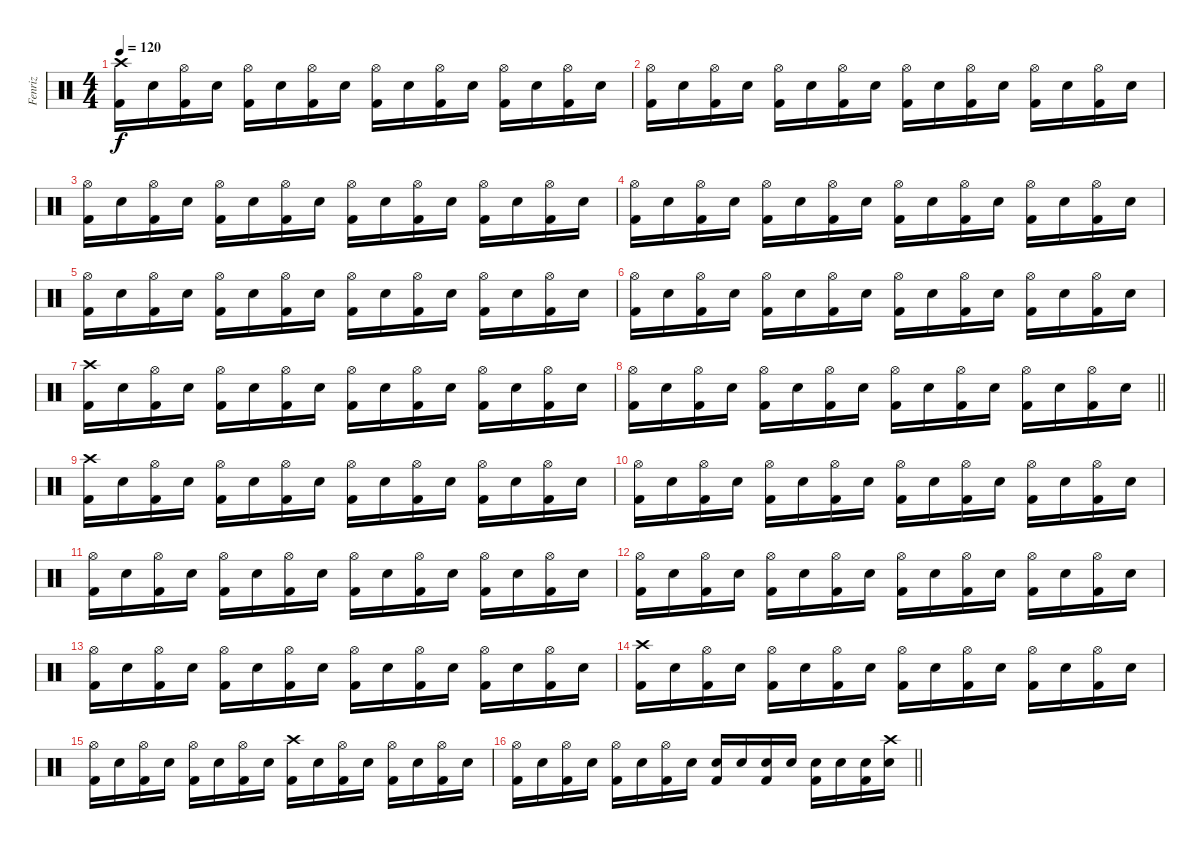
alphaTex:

\track ("Fenriz" "Fenriz") {instrument percussion}
\staff {score}
\articulation defaults
\ts (4 4)
\tempo 120
\clef neutral
\ks c
("Kick (hit) 2" "Crash high (hit)").16{dy f} "Electric Snare (hit)".16 ("Kick (hit) 2" "Hi-Hat (open)").16 "Electric Snare (hit)".16 ("Kick (hit) 2" "Hi-Hat (open)").16 "Electric Snare (hit)".16 ("Kick (hit) 2" "Hi-Hat (open)").16 "Electric Snare (hit)".16 ("Kick (hit) 2" "Hi-Hat (open)").16 "Electric Snare (hit)".16 ("Kick (hit) 2" "Hi-Hat (open)").16 "Electric Snare (hit)".16 ("Kick (hit) 2" "Hi-Hat (open)").16 "Electric Snare (hit)".16 ("Kick (hit) 2" "Hi-Hat (open)").16 "Electric Snare (hit)".16 |
("Kick (hit) 2" "Hi-Hat (open)").16 "Electric Snare (hit)".16 ("Kick (hit) 2" "Hi-Hat (open)").16 "Electric Snare (hit)".16 ("Kick (hit) 2" "Hi-Hat (open)").16 "Electric Snare (hit)".16 ("Kick (hit) 2" "Hi-Hat (open)").16 "Electric Snare (hit)".16 ("Kick (hit) 2" "Hi-Hat (open)").16 "Electric Snare (hit)".16 ("Kick (hit) 2" "Hi-Hat (open)").16 "Electric Snare (hit)".16 ("Kick (hit) 2" "Hi-Hat (open)").16 "Electric Snare (hit)".16 ("Kick (hit) 2" "Hi-Hat (open)").16 "Electric Snare (hit)".16 |
("Kick (hit) 2" "Hi-Hat (open)").16 "Electric Snare (hit)".16 ("Kick (hit) 2" "Hi-Hat (open)").16 "Electric Snare (hit)".16 ("Kick (hit) 2" "Hi-Hat (open)").16 "Electric Snare (hit)".16 ("Kick (hit) 2" "Hi-Hat (open)").16 "Electric Snare (hit)".16 ("Kick (hit) 2" "Hi-Hat (open)").16 "Electric Snare (hit)".16 ("Kick (hit) 2" "Hi-Hat (open)").16 "Electric Snare (hit)".16 ("Kick (hit) 2" "Hi-Hat (open)").16 "Electric Snare (hit)".16 ("Kick (hit) 2" "Hi-Hat (open)").16 "Electric Snare (hit)".16 |
("Kick (hit) 2" "Hi-Hat (open)").16 "Electric Snare (hit)".16 ("Kick (hit) 2" "Hi-Hat (open)").16 "Electric Snare (hit)".16 ("Kick (hit) 2" "Hi-Hat (open)").16 "Electric Snare (hit)".16 ("Kick (hit) 2" "Hi-Hat (open)").16 "Electric Snare (hit)".16 ("Kick (hit) 2" "Hi-Hat (open)").16 "Electric Snare (hit)".16 ("Kick (hit) 2" "Hi-Hat (open)").16 "Electric Snare (hit)".16 ("Kick (hit) 2" "Hi-Hat (open)").16 "Electric Snare (hit)".16 ("Kick (hit) 2" "Hi-Hat (open)").16 "Electric Snare (hit)".16 |
("Kick (hit) 2" "Hi-Hat (open)").16 "Electric Snare (hit)".16 ("Kick (hit) 2" "Hi-Hat (open)").16 "Electric Snare (hit)".16 ("Kick (hit) 2" "Hi-Hat (open)").16 "Electric Snare (hit)".16 ("Kick (hit) 2" "Hi-Hat (open)").16 "Electric Snare (hit)".16 ("Kick (hit) 2" "Hi-Hat (open)").16 "Electric Snare (hit)".16 ("Kick (hit) 2" "Hi-Hat (open)").16 "Electric Snare (hit)".16 ("Kick (hit) 2" "Hi-Hat (open)").16 "Electric Snare (hit)".16 ("Kick (hit) 2" "Hi-Hat (open)").16 "Electric Snare (hit)".16 |
("Kick (hit) 2" "Hi-Hat (open)").16 "Electric Snare (hit)".16 ("Kick (hit) 2" "Hi-Hat (open)").16 "Electric Snare (hit)".16 ("Kick (hit) 2" "Hi-Hat (open)").16 "Electric Snare (hit)".16 ("Kick (hit) 2" "Hi-Hat (open)").16 "Electric Snare (hit)".16 ("Kick (hit) 2" "Hi-Hat (open)").16 "Electric Snare (hit)".16 ("Kick (hit) 2" "Hi-Hat (open)").16 "Electric Snare (hit)".16 ("Kick (hit) 2" "Hi-Hat (open)").16 "Electric Snare (hit)".16 ("Kick (hit) 2" "Hi-Hat (open)").16 "Electric Snare (hit)".16 |
("Kick (hit) 2" "Crash high (hit)").16 "Electric Snare (hit)".16 ("Kick (hit) 2" "Hi-Hat (open)").16 "Electric Snare (hit)".16 ("Kick (hit) 2" "Hi-Hat (open)").16 "Electric Snare (hit)".16 ("Kick (hit) 2" "Hi-Hat (open)").16 "Electric Snare (hit)".16 ("Kick (hit) 2" "Hi-Hat (open)").16 "Electric Snare (hit)".16 ("Kick (hit) 2" "Hi-Hat (open)").16 "Electric Snare (hit)".16 ("Kick (hit) 2" "Hi-Hat (open)").16 "Electric Snare (hit)".16 ("Kick (hit) 2" "Hi-Hat (open)").16 "Electric Snare (hit)".16 |
\barLineRight lightlight
("Kick (hit) 2" "Hi-Hat (open)").16 "Electric Snare (hit)".16 ("Kick (hit) 2" "Hi-Hat (open)").16 "Electric Snare (hit)".16 ("Kick (hit) 2" "Hi-Hat (open)").16 "Electric Snare (hit)".16 ("Kick (hit) 2" "Hi-Hat (open)").16 "Electric Snare (hit)".16 ("Kick (hit) 2" "Hi-Hat (open)").16 "Electric Snare (hit)".16 ("Kick (hit) 2" "Hi-Hat (open)").16 "Electric Snare (hit)".16 ("Kick (hit) 2" "Hi-Hat (open)").16 "Electric Snare (hit)".16 ("Kick (hit) 2" "Hi-Hat (open)").16 "Electric Snare (hit)".16 |
("Kick (hit) 2" "Crash high (hit)").16 "Electric Snare (hit)".16 ("Kick (hit) 2" "Hi-Hat (open)").16 "Electric Snare (hit)".16 ("Kick (hit) 2" "Hi-Hat (open)").16 "Electric Snare (hit)".16 ("Kick (hit) 2" "Hi-Hat (open)").16 "Electric Snare (hit)".16 ("Kick (hit) 2" "Hi-Hat (open)").16 "Electric Snare (hit)".16 ("Kick (hit) 2" "Hi-Hat (open)").16 "Electric Snare (hit)".16 ("Kick (hit) 2" "Hi-Hat (open)").16 "Electric Snare (hit)".16 ("Kick (hit) 2" "Hi-Hat (open)").16 "Electric Snare (hit)".16 |
("Kick (hit) 2" "Hi-Hat (open)").16 "Electric Snare (hit)".16 ("Kick (hit) 2" "Hi-Hat (open)").16 "Electric Snare (hit)".16 ("Kick (hit) 2" "Hi-Hat (open)").16 "Electric Snare (hit)".16 ("Kick (hit) 2" "Hi-Hat (open)").16 "Electric Snare (hit)".16 ("Kick (hit) 2" "Hi-Hat (open)").16 "Electric Snare (hit)".16 ("Kick (hit) 2" "Hi-Hat (open)").16 "Electric Snare (hit)".16 ("Kick (hit) 2" "Hi-Hat (open)").16 "Electric Snare (hit)".16 ("Kick (hit) 2" "Hi-Hat (open)").16 "Electric Snare (hit)".16 |
("Kick (hit) 2" "Hi-Hat (open)").16 "Electric Snare (hit)".16 ("Kick (hit) 2" "Hi-Hat (open)").16 "Electric Snare (hit)".16 ("Kick (hit) 2" "Hi-Hat (open)").16 "Electric Snare (hit)".16 ("Kick (hit) 2" "Hi-Hat (open)").16 "Electric Snare (hit)".16 ("Kick (hit) 2" "Hi-Hat (open)").16 "Electric Snare (hit)".16 ("Kick (hit) 2" "Hi-Hat (open)").16 "Electric Snare (hit)".16 ("Kick (hit) 2" "Hi-Hat (open)").16 "Electric Snare (hit)".16 ("Kick (hit) 2" "Hi-Hat (open)").16 "Electric Snare (hit)".16 |
("Kick (hit) 2" "Hi-Hat (open)").16 "Electric Snare (hit)".16 ("Kick (hit) 2" "Hi-Hat (open)").16 "Electric Snare (hit)".16 ("Kick (hit) 2" "Hi-Hat (open)").16 "Electric Snare (hit)".16 ("Kick (hit) 2" "Hi-Hat (open)").16 "Electric Snare (hit)".16 ("Kick (hit) 2" "Hi-Hat (open)").16 "Electric Snare (hit)".16 ("Kick (hit) 2" "Hi-Hat (open)").16 "Electric Snare (hit)".16 ("Kick (hit) 2" "Hi-Hat (open)").16 "Electric Snare (hit)".16 ("Kick (hit) 2" "Hi-Hat (open)").16 "Electric Snare (hit)".16 |
("Kick (hit) 2" "Hi-Hat (open)").16 "Electric Snare (hit)".16 ("Kick (hit) 2" "Hi-Hat (open)").16 "Electric Snare (hit)".16 ("Kick (hit) 2" "Hi-Hat (open)").16 "Electric Snare (hit)".16 ("Kick (hit) 2" "Hi-Hat (open)").16 "Electric Snare (hit)".16 ("Kick (hit) 2" "Hi-Hat (open)").16 "Electric Snare (hit)".16 ("Kick (hit) 2" "Hi-Hat (open)").16 "Electric Snare (hit)".16 ("Kick (hit) 2" "Hi-Hat (open)").16 "Electric Snare (hit)".16 ("Kick (hit) 2" "Hi-Hat (open)").16 "Electric Snare (hit)".16 |
("Kick (hit) 2" "Crash high (hit)").16 "Electric Snare (hit)".16 ("Kick (hit) 2" "Hi-Hat (open)").16 "Electric Snare (hit)".16 ("Kick (hit) 2" "Hi-Hat (open)").16 "Electric Snare (hit)".16 ("Kick (hit) 2" "Hi-Hat (open)").16 "Electric Snare (hit)".16 ("Kick (hit) 2" "Hi-Hat (open)").16 "Electric Snare (hit)".16 ("Kick (hit) 2" "Hi-Hat (open)").16 "Electric Snare (hit)".16 ("Kick (hit) 2" "Hi-Hat (open)").16 "Electric Snare (hit)".16 ("Kick (hit) 2" "Hi-Hat (open)").16 "Electric Snare (hit)".16 |
("Kick (hit) 2" "Hi-Hat (open)").16 "Electric Snare (hit)".16 ("Kick (hit) 2" "Hi-Hat (open)").16 "Electric Snare (hit)".16 ("Kick (hit) 2" "Hi-Hat (open)").16 "Electric Snare (hit)".16 ("Kick (hit) 2" "Hi-Hat (open)").16 "Electric Snare (hit)".16 ("Kick (hit) 2" "Crash high (hit)").16 "Electric Snare (hit)".16 ("Kick (hit) 2" "Hi-Hat (open)").16 "Electric Snare (hit)".16 ("Kick (hit) 2" "Hi-Hat (open)").16 "Electric Snare (hit)".16 ("Kick (hit) 2" "Hi-Hat (open)").16 "Electric Snare (hit)".16 |
\barLineRight lightlight
("Kick (hit) 2" "Hi-Hat (open)").16 "Electric Snare (hit)".16 ("Kick (hit) 2" "Hi-Hat (open)").16 "Electric Snare (hit)".16 ("Kick (hit) 2" "Hi-Hat (open)").16 "Electric Snare (hit)".16 ("Kick (hit) 2" "Hi-Hat (open)").16 "Electric Snare (hit)".16 ("Kick (hit) 2" "Electric Snare (hit)").16 "Electric Snare (hit)".16 ("Kick (hit) 2" "Electric Snare (hit)").16 "Electric Snare (hit)".16 ("Kick (hit) 2" "Electric Snare (hit)").16 "Electric Snare (hit)".16 ("Kick (hit) 2" "Electric Snare (hit)").16 ("Electric Snare (hit)" "Crash high (hit)").16
